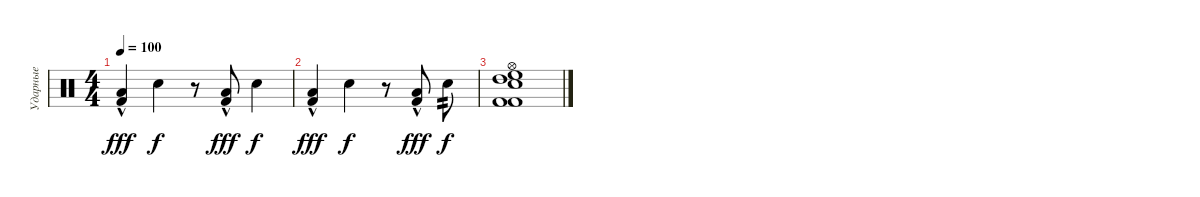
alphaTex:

\track ("Ударные" "Ударные") {instrument percussion}
\staff {score}
\articulation defaults
\ts (4 4)
\tempo 100
\clef neutral
\ks c
("Low Floor Tom (hit)" "Kick (hit) 2"{hac}).4{dy fff} "Electric Snare (hit)".4{dy f} r.8 ("Low Floor Tom (hit)" "Kick (hit) 2"{hac}).8{dy fff} "Electric Snare (hit)".4{dy f} |
("Low Floor Tom (hit)" "Kick (hit) 2"{hac}).4{dy fff} "Electric Snare (hit)".4{dy f} r.8 ("Low Floor Tom (hit)" "Kick (hit) 2"{hac}).8{dy fff} "Electric Snare (hit)".8{tp 2 dy f} |
("Kick (hit) 2" "Snare (hit) 2" "Kick (hit) 2" "High Floor Tom (hit)" "High Tom (hit)" "Hi-Hat (open)").1
